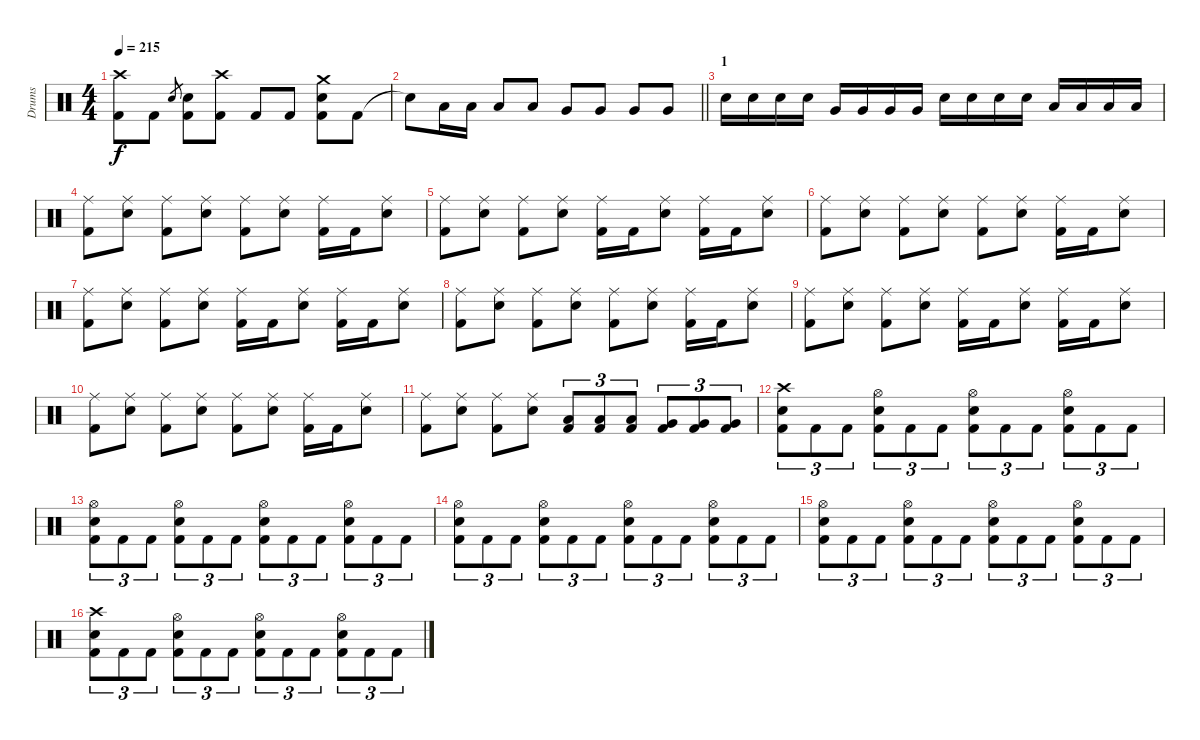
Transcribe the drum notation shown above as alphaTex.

\track ("Drums" "Drums") {instrument percussion}
\staff {score}
\articulation defaults
\ts (4 4)
\tempo 215
\clef neutral
\ks c
("Crash high (hit)" "Kick (hit) 2").8{dy f} "Kick (hit) 2".8 "Electric Snare (hit)".8{gr} ("Electric Snare (hit)" "Kick (hit) 2").8 ("Crash high (hit)" "Kick (hit) 2").8 "Kick (hit) 2".8 "Kick (hit) 2".8 ("Crash medium (hit)" "Electric Snare (hit)" "Kick (hit) 2").8 "Kick (hit) 2".8 |
\barLineRight lightlight "Snare (hit)"{t}.8 "Low Tom (hit)".16 "Low Tom (hit)".16 "Low Tom (hit)".8 "Low Tom (hit)".8 "Very Low Tom (hit)".8 "Very Low Tom (hit)".8 "Very Low Tom (hit)".8 "Very Low Tom (hit)".8
|
\section ("" "1")
"Electric Snare (hit)".16 "Electric Snare (hit)".16 "Electric Snare (hit)".16 "Electric Snare (hit)".16 "Very Low Tom (hit)".16 "Very Low Tom (hit)".16 "Very Low Tom (hit)".16 "Very Low Tom (hit)".16 "Electric Snare (hit)".16 "Electric Snare (hit)".16 "Electric Snare (hit)".16 "Electric Snare (hit)".16 "Low Tom (hit)".16 "Low Tom (hit)".16 "Low Tom (hit)".16 "Low Tom (hit)".16 |
("Ride (middle)" "Kick (hit) 2").8 ("Ride (middle)" "Electric Snare (hit)").8 ("Ride (middle)" "Kick (hit) 2").8 ("Ride (middle)" "Electric Snare (hit)").8 ("Ride (middle)" "Kick (hit) 2").8 ("Ride (middle)" "Electric Snare (hit)").8 ("Ride (middle)" "Kick (hit) 2").16 "Kick (hit) 2".16 ("Ride (middle)" "Electric Snare (hit)").8 |
("Ride (middle)" "Kick (hit) 2").8 ("Ride (middle)" "Electric Snare (hit)").8 ("Ride (middle)" "Kick (hit) 2").8 ("Ride (middle)" "Electric Snare (hit)").8 ("Ride (middle)" "Kick (hit) 2").16 "Kick (hit) 2".16 ("Ride (middle)" "Electric Snare (hit)").8 ("Ride (middle)" "Kick (hit) 2").16 "Kick (hit) 2".16 ("Ride (middle)" "Electric Snare (hit)").8 |
("Ride (middle)" "Kick (hit) 2").8 ("Ride (middle)" "Electric Snare (hit)").8 ("Ride (middle)" "Kick (hit) 2").8 ("Ride (middle)" "Electric Snare (hit)").8 ("Ride (middle)" "Kick (hit) 2").8 ("Ride (middle)" "Electric Snare (hit)").8 ("Ride (middle)" "Kick (hit) 2").16 "Kick (hit) 2".16 ("Ride (middle)" "Electric Snare (hit)").8 |
("Ride (middle)" "Kick (hit) 2").8 ("Ride (middle)" "Electric Snare (hit)").8 ("Ride (middle)" "Kick (hit) 2").8 ("Ride (middle)" "Electric Snare (hit)").8 ("Ride (middle)" "Kick (hit) 2").16 "Kick (hit) 2".16 ("Ride (middle)" "Electric Snare (hit)").8 ("Ride (middle)" "Kick (hit) 2").16 "Kick (hit) 2".16 ("Ride (middle)" "Electric Snare (hit)").8 |
("Ride (middle)" "Kick (hit) 2").8 ("Ride (middle)" "Electric Snare (hit)").8 ("Ride (middle)" "Kick (hit) 2").8 ("Ride (middle)" "Electric Snare (hit)").8 ("Ride (middle)" "Kick (hit) 2").8 ("Ride (middle)" "Electric Snare (hit)").8 ("Ride (middle)" "Kick (hit) 2").16 "Kick (hit) 2".16 ("Ride (middle)" "Electric Snare (hit)").8 |
("Ride (middle)" "Kick (hit) 2").8 ("Ride (middle)" "Electric Snare (hit)").8 ("Ride (middle)" "Kick (hit) 2").8 ("Ride (middle)" "Electric Snare (hit)").8 ("Ride (middle)" "Kick (hit) 2").16 "Kick (hit) 2".16 ("Ride (middle)" "Electric Snare (hit)").8 ("Ride (middle)" "Kick (hit) 2").16 "Kick (hit) 2".16 ("Ride (middle)" "Electric Snare (hit)").8 |
("Ride (middle)" "Kick (hit) 2").8 ("Ride (middle)" "Electric Snare (hit)").8 ("Ride (middle)" "Kick (hit) 2").8 ("Ride (middle)" "Electric Snare (hit)").8 ("Ride (middle)" "Kick (hit) 2").8 ("Ride (middle)" "Electric Snare (hit)").8 ("Ride (middle)" "Kick (hit) 2").16 "Kick (hit) 2".16 ("Ride (middle)" "Electric Snare (hit)").8 |
("Ride (middle)" "Kick (hit) 2").8 ("Ride (middle)" "Electric Snare (hit)").8 ("Ride (middle)" "Kick (hit) 2").8 ("Ride (middle)" "Electric Snare (hit)").8 ("Low Tom (hit)" "Kick (hit) 2").8{tu (3 2)} ("Low Tom (hit)" "Kick (hit) 2").8{tu (3 2)} ("Low Tom (hit)" "Kick (hit) 2").8{tu (3 2)} ("Very Low Tom (hit)" "Kick (hit) 2").8{tu (3 2)} ("Very Low Tom (hit)" "Kick (hit) 2").8{tu (3 2)} ("Very Low Tom (hit)" "Kick (hit) 2").8{tu (3 2)} |
("Crash high (hit)" "Electric Snare (hit)" "Kick (hit) 2").8{tu (3 2)} "Kick (hit) 2".8{tu (3 2)} "Kick (hit) 2".8{tu (3 2)} ("Hi-Hat (open)" "Electric Snare (hit)" "Kick (hit) 2").8{tu (3 2)} "Kick (hit) 2".8{tu (3 2)} "Kick (hit) 2".8{tu (3 2)} ("Hi-Hat (open)" "Electric Snare (hit)" "Kick (hit) 2").8{tu (3 2)} "Kick (hit) 2".8{tu (3 2)} "Kick (hit) 2".8{tu (3 2)} ("Hi-Hat (open)" "Electric Snare (hit)" "Kick (hit) 2").8{tu (3 2)} "Kick (hit) 2".8{tu (3 2)} "Kick (hit) 2".8{tu (3 2)} |
("Hi-Hat (open)" "Electric Snare (hit)" "Kick (hit) 2").8{tu (3 2)} "Kick (hit) 2".8{tu (3 2)} "Kick (hit) 2".8{tu (3 2)} ("Hi-Hat (open)" "Electric Snare (hit)" "Kick (hit) 2").8{tu (3 2)} "Kick (hit) 2".8{tu (3 2)} "Kick (hit) 2".8{tu (3 2)} ("Hi-Hat (open)" "Electric Snare (hit)" "Kick (hit) 2").8{tu (3 2)} "Kick (hit) 2".8{tu (3 2)} "Kick (hit) 2".8{tu (3 2)} ("Hi-Hat (open)" "Electric Snare (hit)" "Kick (hit) 2").8{tu (3 2)} "Kick (hit) 2".8{tu (3 2)} "Kick (hit) 2".8{tu (3 2)} |
("Hi-Hat (open)" "Electric Snare (hit)" "Kick (hit) 2").8{tu (3 2)} "Kick (hit) 2".8{tu (3 2)} "Kick (hit) 2".8{tu (3 2)} ("Hi-Hat (open)" "Electric Snare (hit)" "Kick (hit) 2").8{tu (3 2)} "Kick (hit) 2".8{tu (3 2)} "Kick (hit) 2".8{tu (3 2)} ("Hi-Hat (open)" "Electric Snare (hit)" "Kick (hit) 2").8{tu (3 2)} "Kick (hit) 2".8{tu (3 2)} "Kick (hit) 2".8{tu (3 2)} ("Hi-Hat (open)" "Electric Snare (hit)" "Kick (hit) 2").8{tu (3 2)} "Kick (hit) 2".8{tu (3 2)} "Kick (hit) 2".8{tu (3 2)} |
("Hi-Hat (open)" "Electric Snare (hit)" "Kick (hit) 2").8{tu (3 2)} "Kick (hit) 2".8{tu (3 2)} "Kick (hit) 2".8{tu (3 2)} ("Hi-Hat (open)" "Electric Snare (hit)" "Kick (hit) 2").8{tu (3 2)} "Kick (hit) 2".8{tu (3 2)} "Kick (hit) 2".8{tu (3 2)} ("Hi-Hat (open)" "Electric Snare (hit)" "Kick (hit) 2").8{tu (3 2)} "Kick (hit) 2".8{tu (3 2)} "Kick (hit) 2".8{tu (3 2)} ("Hi-Hat (open)" "Electric Snare (hit)" "Kick (hit) 2").8{tu (3 2)} "Kick (hit) 2".8{tu (3 2)} "Kick (hit) 2".8{tu (3 2)} |
("Crash high (hit)" "Electric Snare (hit)" "Kick (hit) 2").8{tu (3 2)} "Kick (hit) 2".8{tu (3 2)} "Kick (hit) 2".8{tu (3 2)} ("Hi-Hat (open)" "Electric Snare (hit)" "Kick (hit) 2").8{tu (3 2)} "Kick (hit) 2".8{tu (3 2)} "Kick (hit) 2".8{tu (3 2)} ("Hi-Hat (open)" "Electric Snare (hit)" "Kick (hit) 2").8{tu (3 2)} "Kick (hit) 2".8{tu (3 2)} "Kick (hit) 2".8{tu (3 2)} ("Hi-Hat (open)" "Electric Snare (hit)" "Kick (hit) 2").8{tu (3 2)} "Kick (hit) 2".8{tu (3 2)} "Kick (hit) 2".8{tu (3 2)}
